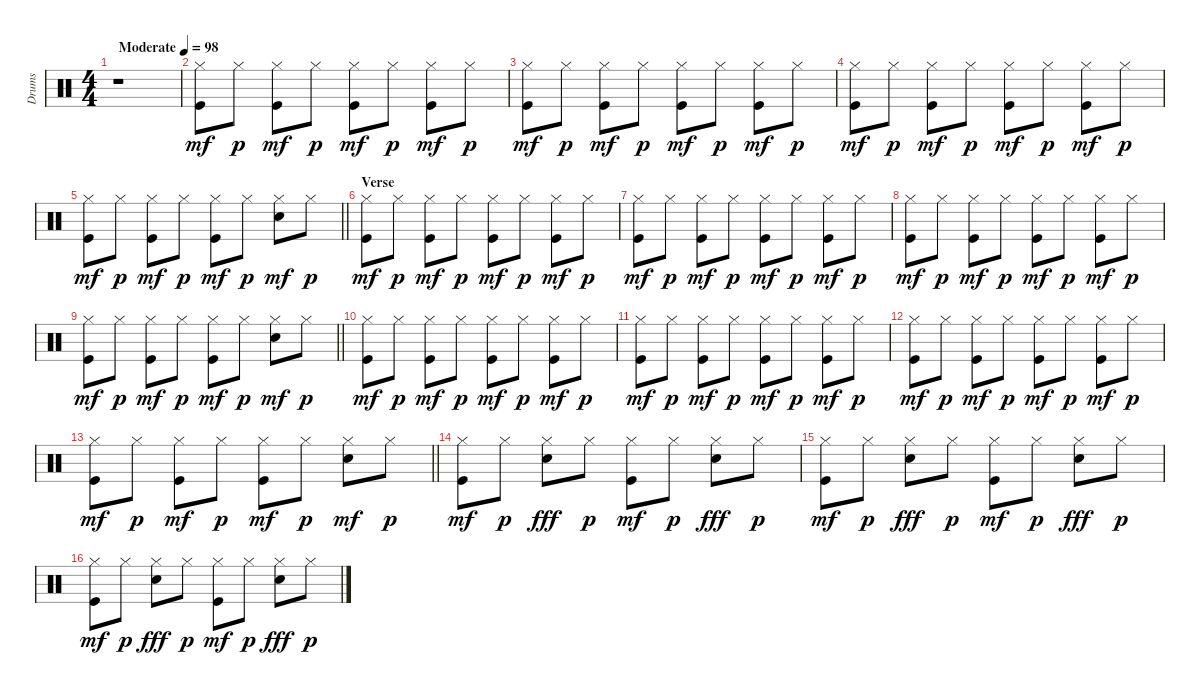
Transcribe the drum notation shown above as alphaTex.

\track ("Drums" "Drums") {instrument percussion}
\staff {score}
\articulation defaults
\ts (4 4)
\tempo (98 "Moderate")
\clef neutral
\ks c
r.1{dy mf} |
("Kick (hit)" "Hi-Hat (closed)").8 "Hi-Hat (closed)".8{dy p} ("Kick (hit)" "Hi-Hat (closed)").8{dy mf} "Hi-Hat (closed)".8{dy p} ("Kick (hit)" "Hi-Hat (closed)").8{dy mf} "Hi-Hat (closed)".8{dy p} ("Kick (hit)" "Hi-Hat (closed)").8{dy mf} "Hi-Hat (closed)".8{dy p} |
("Kick (hit)" "Hi-Hat (closed)").8{dy mf} "Hi-Hat (closed)".8{dy p} ("Kick (hit)" "Hi-Hat (closed)").8{dy mf} "Hi-Hat (closed)".8{dy p} ("Kick (hit)" "Hi-Hat (closed)").8{dy mf} "Hi-Hat (closed)".8{dy p} ("Kick (hit)" "Hi-Hat (closed)").8{dy mf} "Hi-Hat (closed)".8{dy p} |
("Kick (hit)" "Hi-Hat (closed)").8{dy mf} "Hi-Hat (closed)".8{dy p} ("Kick (hit)" "Hi-Hat (closed)").8{dy mf} "Hi-Hat (closed)".8{dy p} ("Kick (hit)" "Hi-Hat (closed)").8{dy mf} "Hi-Hat (closed)".8{dy p} ("Kick (hit)" "Hi-Hat (closed)").8{dy mf} "Hi-Hat (closed)".8{dy p} |
\barLineRight lightlight
("Kick (hit)" "Hi-Hat (closed)").8{dy mf} "Hi-Hat (closed)".8{dy p} ("Kick (hit)" "Hi-Hat (closed)").8{dy mf} "Hi-Hat (closed)".8{dy p} ("Kick (hit)" "Hi-Hat (closed)").8{dy mf} "Hi-Hat (closed)".8{dy p} ("Snare (hit) 2" "Hi-Hat (closed)").8{dy mf} "Hi-Hat (closed)".8{dy p} |
\section ("" "Verse")
("Kick (hit)" "Hi-Hat (closed)").8{dy mf} "Hi-Hat (closed)".8{dy p} ("Kick (hit)" "Hi-Hat (closed)").8{dy mf} "Hi-Hat (closed)".8{dy p} ("Kick (hit)" "Hi-Hat (closed)").8{dy mf} "Hi-Hat (closed)".8{dy p} ("Kick (hit)" "Hi-Hat (closed)").8{dy mf} "Hi-Hat (closed)".8{dy p} |
("Kick (hit)" "Hi-Hat (closed)").8{dy mf} "Hi-Hat (closed)".8{dy p} ("Kick (hit)" "Hi-Hat (closed)").8{dy mf} "Hi-Hat (closed)".8{dy p} ("Kick (hit)" "Hi-Hat (closed)").8{dy mf} "Hi-Hat (closed)".8{dy p} ("Kick (hit)" "Hi-Hat (closed)").8{dy mf} "Hi-Hat (closed)".8{dy p} |
("Kick (hit)" "Hi-Hat (closed)").8{dy mf} "Hi-Hat (closed)".8{dy p} ("Kick (hit)" "Hi-Hat (closed)").8{dy mf} "Hi-Hat (closed)".8{dy p} ("Kick (hit)" "Hi-Hat (closed)").8{dy mf} "Hi-Hat (closed)".8{dy p} ("Kick (hit)" "Hi-Hat (closed)").8{dy mf} "Hi-Hat (closed)".8{dy p} |
\barLineRight lightlight
("Kick (hit)" "Hi-Hat (closed)").8{dy mf} "Hi-Hat (closed)".8{dy p} ("Kick (hit)" "Hi-Hat (closed)").8{dy mf} "Hi-Hat (closed)".8{dy p} ("Kick (hit)" "Hi-Hat (closed)").8{dy mf} "Hi-Hat (closed)".8{dy p} ("Snare (hit) 2" "Hi-Hat (closed)").8{dy mf} "Hi-Hat (closed)".8{dy p} |
("Kick (hit)" "Hi-Hat (closed)").8{dy mf} "Hi-Hat (closed)".8{dy p} ("Kick (hit)" "Hi-Hat (closed)").8{dy mf} "Hi-Hat (closed)".8{dy p} ("Kick (hit)" "Hi-Hat (closed)").8{dy mf} "Hi-Hat (closed)".8{dy p} ("Kick (hit)" "Hi-Hat (closed)").8{dy mf} "Hi-Hat (closed)".8{dy p} |
("Kick (hit)" "Hi-Hat (closed)").8{dy mf} "Hi-Hat (closed)".8{dy p} ("Kick (hit)" "Hi-Hat (closed)").8{dy mf} "Hi-Hat (closed)".8{dy p} ("Kick (hit)" "Hi-Hat (closed)").8{dy mf} "Hi-Hat (closed)".8{dy p} ("Kick (hit)" "Hi-Hat (closed)").8{dy mf} "Hi-Hat (closed)".8{dy p} |
("Kick (hit)" "Hi-Hat (closed)").8{dy mf} "Hi-Hat (closed)".8{dy p} ("Kick (hit)" "Hi-Hat (closed)").8{dy mf} "Hi-Hat (closed)".8{dy p} ("Kick (hit)" "Hi-Hat (closed)").8{dy mf} "Hi-Hat (closed)".8{dy p} ("Kick (hit)" "Hi-Hat (closed)").8{dy mf} "Hi-Hat (closed)".8{dy p} |
\barLineRight lightlight
("Kick (hit)" "Hi-Hat (closed)").8{dy mf} "Hi-Hat (closed)".8{dy p} ("Kick (hit)" "Hi-Hat (closed)").8{dy mf} "Hi-Hat (closed)".8{dy p} ("Kick (hit)" "Hi-Hat (closed)").8{dy mf} "Hi-Hat (closed)".8{dy p} ("Snare (hit) 2" "Hi-Hat (closed)").8{dy mf} "Hi-Hat (closed)".8{dy p} |
("Kick (hit)" "Hi-Hat (closed)").8{dy mf} "Hi-Hat (closed)".8{dy p} ("Snare (hit) 2" "Hi-Hat (closed)").8{dy fff} "Hi-Hat (closed)".8{dy p} ("Kick (hit)" "Hi-Hat (closed)").8{dy mf} "Hi-Hat (closed)".8{dy p} ("Snare (hit) 2" "Hi-Hat (closed)").8{dy fff} "Hi-Hat (closed)".8{dy p} |
("Kick (hit)" "Hi-Hat (closed)").8{dy mf} "Hi-Hat (closed)".8{dy p} ("Snare (hit) 2" "Hi-Hat (closed)").8{dy fff} "Hi-Hat (closed)".8{dy p} ("Kick (hit)" "Hi-Hat (closed)").8{dy mf} "Hi-Hat (closed)".8{dy p} ("Snare (hit) 2" "Hi-Hat (closed)").8{dy fff} "Hi-Hat (closed)".8{dy p} |
("Kick (hit)" "Hi-Hat (closed)").8{dy mf} "Hi-Hat (closed)".8{dy p} ("Snare (hit) 2" "Hi-Hat (closed)").8{dy fff} "Hi-Hat (closed)".8{dy p} ("Kick (hit)" "Hi-Hat (closed)").8{dy mf} "Hi-Hat (closed)".8{dy p} ("Snare (hit) 2" "Hi-Hat (closed)").8{dy fff} "Hi-Hat (closed)".8{dy p}
